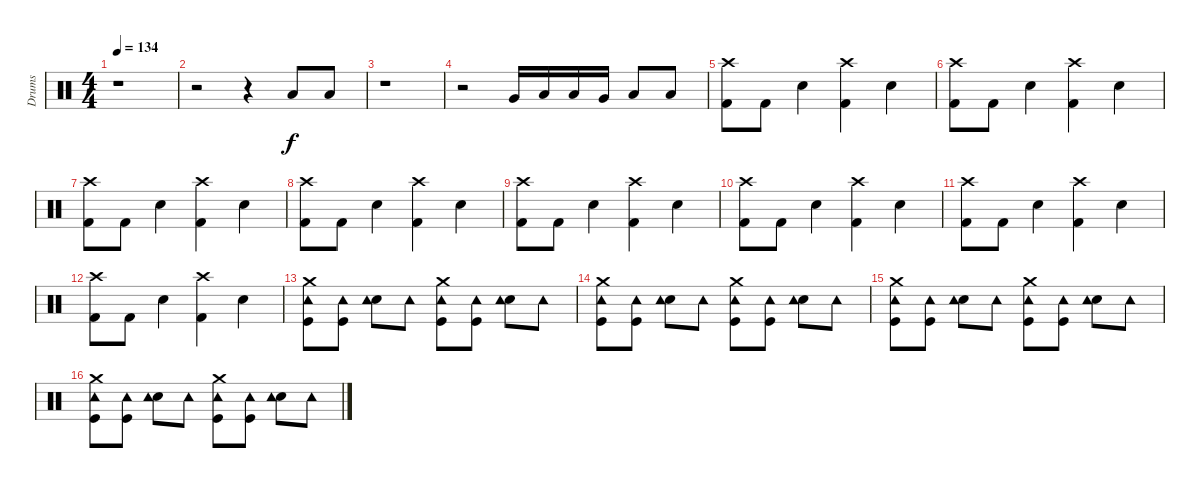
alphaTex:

\track ("Drums" "Drums") {instrument percussion}
\staff {score}
\articulation defaults
\ts (4 4)
\tempo 134
\clef neutral
\ks c
r.1{dy f} |
r.2 r.4 "Low Floor Tom (hit)".8 "Low Floor Tom (hit)".8 |
r.1 |
r.2 "Very Low Tom (hit)".16 "Low Floor Tom (hit)".16 "Low Tom (hit)".16 "Very Low Tom (hit)".16 "Low Floor Tom (hit)".8 "Low Floor Tom (hit)".8 |
("Kick (hit) 2" "Crash high (hit)").8 "Kick (hit) 2".8 "Electric Snare (hit)".4 ("Kick (hit) 2" "Crash high (hit)").4 "Electric Snare (hit)".4 |
("Kick (hit) 2" "Crash high (hit)").8 "Kick (hit) 2".8 "Electric Snare (hit)".4 ("Kick (hit) 2" "Crash high (hit)").4 "Electric Snare (hit)".4 |
("Crash high (hit)" "Kick (hit) 2").8 "Kick (hit) 2".8 "Electric Snare (hit)".4 ("Kick (hit) 2" "Crash high (hit)").4 "Electric Snare (hit)".4 |
("Kick (hit) 2" "Crash high (hit)").8 "Kick (hit) 2".8 "Electric Snare (hit)".4 ("Kick (hit) 2" "Crash high (hit)").4 "Electric Snare (hit)".4 |
("Crash high (hit)" "Kick (hit) 2").8 "Kick (hit) 2".8 "Electric Snare (hit)".4 ("Kick (hit) 2" "Crash high (hit)").4 "Electric Snare (hit)".4 |
("Kick (hit) 2" "Crash high (hit)").8 "Kick (hit) 2".8 "Electric Snare (hit)".4 ("Kick (hit) 2" "Crash high (hit)").4 "Electric Snare (hit)".4 |
("Crash high (hit)" "Kick (hit) 2").8 "Kick (hit) 2".8 "Electric Snare (hit)".4 ("Kick (hit) 2" "Crash high (hit)").4 "Electric Snare (hit)".4 |
("Kick (hit) 2" "Crash high (hit)").8 "Kick (hit) 2".8 "Electric Snare (hit)".4 ("Kick (hit) 2" "Crash high (hit)").4 "Electric Snare (hit)".4 |
("Kick (hit)" "Tambourine (hit)" "Crash medium (hit)").8 ("Kick (hit)" "Tambourine (hit)").8 ("Electric Snare (hit)" "Tambourine (hit)").8 "Tambourine (hit)".8 ("Kick (hit)" "Tambourine (hit)" "Crash medium (hit)").8 ("Kick (hit)" "Tambourine (hit)").8 ("Electric Snare (hit)" "Tambourine (hit)").8 "Tambourine (hit)".8 |
("Crash medium (hit)" "Tambourine (hit)" "Kick (hit)").8 ("Kick (hit)" "Tambourine (hit)").8 ("Electric Snare (hit)" "Tambourine (hit)").8 "Tambourine (hit)".8 ("Kick (hit)" "Tambourine (hit)" "Crash medium (hit)").8 ("Kick (hit)" "Tambourine (hit)").8 ("Electric Snare (hit)" "Tambourine (hit)").8 "Tambourine (hit)".8 |
("Crash medium (hit)" "Tambourine (hit)" "Kick (hit)").8 ("Kick (hit)" "Tambourine (hit)").8 ("Electric Snare (hit)" "Tambourine (hit)").8 "Tambourine (hit)".8 ("Kick (hit)" "Tambourine (hit)" "Crash medium (hit)").8 ("Kick (hit)" "Tambourine (hit)").8 ("Electric Snare (hit)" "Tambourine (hit)").8 "Tambourine (hit)".8 |
("Crash medium (hit)" "Tambourine (hit)" "Kick (hit)").8 ("Kick (hit)" "Tambourine (hit)").8 ("Electric Snare (hit)" "Tambourine (hit)").8 "Tambourine (hit)".8 ("Kick (hit)" "Tambourine (hit)" "Crash medium (hit)").8 ("Kick (hit)" "Tambourine (hit)").8 ("Electric Snare (hit)" "Tambourine (hit)").8 "Tambourine (hit)".8
